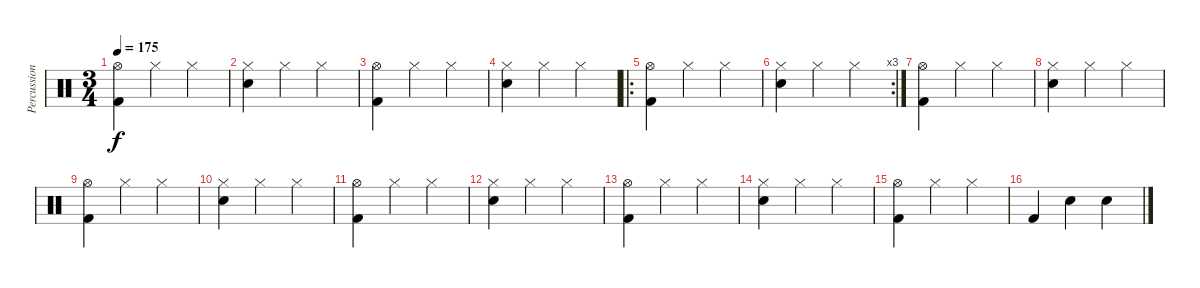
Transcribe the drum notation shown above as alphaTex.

\track ("Percussion" "Percussion") {instrument percussion}
\staff {score}
\articulation defaults
\ts (3 4)
\tempo 175
\clef neutral
\ks c
("Hi-Hat (open)" "Kick (hit) 2").4{dy f} "Hi-Hat (closed)".4 "Hi-Hat (closed)".4 |
("Electric Snare (hit)" "Hi-Hat (closed)").4 "Hi-Hat (closed)".4 "Hi-Hat (closed)".4 |
("Hi-Hat (open)" "Kick (hit) 2").4 "Hi-Hat (closed)".4 "Hi-Hat (closed)".4 |
("Electric Snare (hit)" "Hi-Hat (closed)").4 "Hi-Hat (closed)".4 "Hi-Hat (closed)".4 |
\ro
("Hi-Hat (open)" "Kick (hit) 2").4 "Hi-Hat (closed)".4 "Hi-Hat (closed)".4 |
\rc 3
("Electric Snare (hit)" "Hi-Hat (closed)").4 "Hi-Hat (closed)".4 "Hi-Hat (closed)".4 |
("Hi-Hat (open)" "Kick (hit) 2").4 "Hi-Hat (closed)".4 "Hi-Hat (closed)".4 |
("Electric Snare (hit)" "Hi-Hat (closed)").4 "Hi-Hat (closed)".4 "Hi-Hat (closed)".4 |
("Hi-Hat (open)" "Kick (hit) 2").4 "Hi-Hat (closed)".4 "Hi-Hat (closed)".4 |
("Electric Snare (hit)" "Hi-Hat (closed)").4 "Hi-Hat (closed)".4 "Hi-Hat (closed)".4 |
("Hi-Hat (open)" "Kick (hit) 2").4 "Hi-Hat (closed)".4 "Hi-Hat (closed)".4 |
("Electric Snare (hit)" "Hi-Hat (closed)").4 "Hi-Hat (closed)".4 "Hi-Hat (closed)".4 |
("Hi-Hat (open)" "Kick (hit) 2").4 "Hi-Hat (closed)".4 "Hi-Hat (closed)".4 |
("Electric Snare (hit)" "Hi-Hat (closed)").4 "Hi-Hat (closed)".4 "Hi-Hat (closed)".4 |
("Hi-Hat (open)" "Kick (hit) 2").4 "Hi-Hat (closed)".4 "Hi-Hat (closed)".4 |
"Kick (hit) 2".4 "Electric Snare (hit)".4 "Electric Snare (hit)".4
